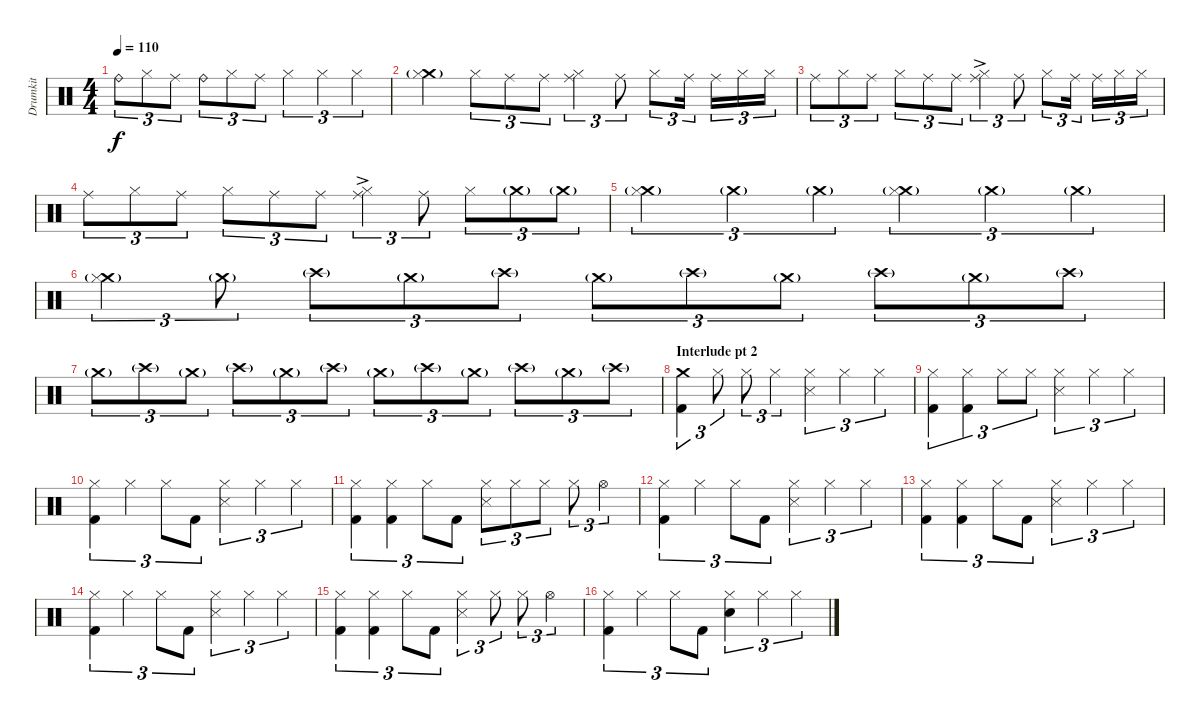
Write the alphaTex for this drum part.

\track ("Drumkit" "Drumkit") {instrument percussion}
\staff {score}
\articulation defaults
\ts (4 4)
\tempo 110
\clef neutral
\ks c "Ride (bell)".8{tu (3 2) dy f} "Hi-Hat (closed)".8{tu (3 2)} "Ride (middle)".8{tu (3 2)} "Ride (bell)".8{tu (3 2)} "Hi-Hat (closed)".8{tu (3 2)} "Ride (middle)".8{tu (3 2)} "Hi-Hat (closed)".4{tu (3 2)} "Hi-Hat (closed)".4{tu (3 2)} "Hi-Hat (closed)".4{tu (3 2)}
|
("Crash medium (hit)"{g} "Hi-Hat (closed)").4 "Hi-Hat (closed)".8{tu (3 2)} "Ride (middle)".8{tu (3 2)} "Ride (middle)".8{tu (3 2)} ("Ride (middle)" "Hi-Hat (closed)").4{tu (3 2)} "Ride (middle)".8{tu (3 2)} "Hi-Hat (closed)".8{tu (3 2)} "Ride (middle)".16{tu (3 2)} "Ride (middle)".16{tu (3 2)} "Hi-Hat (closed)".16{tu (3 2)} "Hi-Hat (closed)".16{tu (3 2)} |
"Ride (middle)".8{tu (3 2)} "Hi-Hat (closed)".8{tu (3 2)} "Ride (middle)".8{tu (3 2)} "Hi-Hat (closed)".8{tu (3 2)} "Ride (middle)".8{tu (3 2)} "Ride (middle)".8{tu (3 2)} ("Ride (middle)"{ac} "Hi-Hat (closed)").4{tu (3 2)} "Ride (middle)".8{tu (3 2)} "Hi-Hat (closed)".8{tu (3 2)} "Ride (middle)".16{tu (3 2)} "Ride (middle)".16{tu (3 2)} "Hi-Hat (closed)".16{tu (3 2)} "Hi-Hat (closed)".16{tu (3 2)} |
"Ride (middle)".8{tu (3 2)} "Hi-Hat (closed)".8{tu (3 2)} "Ride (middle)".8{tu (3 2)} "Hi-Hat (closed)".8{tu (3 2)} "Ride (middle)".8{tu (3 2)} "Ride (middle)".8{tu (3 2)} ("Ride (middle)"{ac} "Hi-Hat (closed)").4{tu (3 2)} "Ride (middle)".8{tu (3 2)} "Hi-Hat (closed)".8{tu (3 2)} "Crash medium (hit)"{g}.8{tu (3 2)} "Crash medium (hit)"{g}.8{tu (3 2)} |
("Crash medium (hit)"{g} "Hi-Hat (closed)").4{tu (3 2)} "Crash medium (hit)"{g}.4{tu (3 2)} "Crash medium (hit)"{g}.4{tu (3 2)} ("Crash medium (hit)"{g} "Hi-Hat (closed)").4{tu (3 2)} "Crash medium (hit)"{g}.4{tu (3 2)} "Crash medium (hit)"{g}.4{tu (3 2)} |
("Crash medium (hit)"{g} "Hi-Hat (closed)").4{tu (3 2)} "Crash medium (hit)"{g}.8{tu (3 2)} "Crash high (hit)"{g}.8{tu (3 2)} "Crash medium (hit)"{g}.8{tu (3 2)} "Crash high (hit)"{g}.8{tu (3 2)} "Crash medium (hit)"{g}.8{tu (3 2)} "Crash high (hit)"{g}.8{tu (3 2)} "Crash medium (hit)"{g}.8{tu (3 2)} "Crash high (hit)"{g}.8{tu (3 2)} "Crash medium (hit)"{g}.8{tu (3 2)} "Crash high (hit)"{g}.8{tu (3 2)} |
"Crash medium (hit)"{g}.8{tu (3 2)} "Crash high (hit)"{g}.8{tu (3 2)} "Crash medium (hit)"{g}.8{tu (3 2)} "Crash high (hit)"{g}.8{tu (3 2)} "Crash medium (hit)"{g}.8{tu (3 2)} "Crash high (hit)"{g}.8{tu (3 2)} "Crash medium (hit)"{g}.8{tu (3 2)} "Crash high (hit)"{g}.8{tu (3 2)} "Crash medium (hit)"{g}.8{tu (3 2)} "Crash high (hit)"{g}.8{tu (3 2)} "Crash medium (hit)"{g}.8{tu (3 2)} "Crash high (hit)"{g}.8{tu (3 2)} |
\section ("" "Interlude pt 2")
("Crash medium (hit)" "Kick (hit) 2").4{tu (3 2)} "Hi-Hat (closed)".8{tu (3 2)} "Hi-Hat (closed)".8{tu (3 2)} "Hi-Hat (closed)".4{tu (3 2)} ("Hi-Hat (closed)" "Snare (side stick) 3").4{tu (3 2)} "Hi-Hat (closed)".4{tu (3 2)} "Hi-Hat (closed)".4{tu (3 2)} |
("Hi-Hat (closed)" "Kick (hit) 2").4{tu (3 2)} ("Hi-Hat (closed)" "Kick (hit) 2").4{tu (3 2)} "Hi-Hat (closed)".8{tu (3 2)} "Hi-Hat (closed)".8{tu (3 2)} ("Hi-Hat (closed)" "Snare (side stick) 3").4{tu (3 2)} "Hi-Hat (closed)".4{tu (3 2)} "Hi-Hat (closed)".4{tu (3 2)} |
("Hi-Hat (closed)" "Kick (hit) 2").4{tu (3 2)} "Hi-Hat (closed)".4{tu (3 2)} "Hi-Hat (closed)".8{tu (3 2)} "Kick (hit) 2".8{tu (3 2)} ("Hi-Hat (closed)" "Snare (side stick) 3").4{tu (3 2)} "Hi-Hat (closed)".4{tu (3 2)} "Hi-Hat (closed)".4{tu (3 2)} |
("Hi-Hat (closed)" "Kick (hit) 2").4{tu (3 2)} ("Hi-Hat (closed)" "Kick (hit) 2").4{tu (3 2)} "Hi-Hat (closed)".8{tu (3 2)} "Kick (hit) 2".8{tu (3 2)} ("Hi-Hat (closed)" "Snare (side stick) 3").8{tu (3 2)} "Hi-Hat (closed)".8{tu (3 2)} "Hi-Hat (closed)".8{tu (3 2)} "Hi-Hat (closed)".8{tu (3 2)} "Hi-Hat (open)".4{tu (3 2)} |
("Hi-Hat (closed)" "Kick (hit) 2").4{tu (3 2)} "Hi-Hat (closed)".4{tu (3 2)} "Hi-Hat (closed)".8{tu (3 2)} "Kick (hit) 2".8{tu (3 2)} ("Hi-Hat (closed)" "Snare (side stick) 3").4{tu (3 2)} "Hi-Hat (closed)".4{tu (3 2)} "Hi-Hat (closed)".4{tu (3 2)} |
("Hi-Hat (closed)" "Kick (hit) 2").4{tu (3 2)} ("Hi-Hat (closed)" "Kick (hit) 2").4{tu (3 2)} "Hi-Hat (closed)".8{tu (3 2)} "Kick (hit) 2".8{tu (3 2)} ("Hi-Hat (closed)" "Snare (side stick) 3").4{tu (3 2)} "Hi-Hat (closed)".4{tu (3 2)} "Hi-Hat (closed)".4{tu (3 2)} |
("Hi-Hat (closed)" "Kick (hit) 2").4{tu (3 2)} "Hi-Hat (closed)".4{tu (3 2)} "Hi-Hat (closed)".8{tu (3 2)} "Kick (hit) 2".8{tu (3 2)} ("Hi-Hat (closed)" "Snare (side stick) 3").4{tu (3 2)} "Hi-Hat (closed)".4{tu (3 2)} "Hi-Hat (closed)".4{tu (3 2)} |
("Hi-Hat (closed)" "Kick (hit) 2").4{tu (3 2)} ("Hi-Hat (closed)" "Kick (hit) 2").4{tu (3 2)} "Hi-Hat (closed)".8{tu (3 2)} "Kick (hit) 2".8{tu (3 2)} ("Hi-Hat (closed)" "Snare (side stick) 3").4{tu (3 2)} "Hi-Hat (closed)".8{tu (3 2)} "Hi-Hat (closed)".8{tu (3 2)} "Hi-Hat (open)".4{tu (3 2)} |
("Hi-Hat (closed)" "Kick (hit) 2").4{tu (3 2)} "Hi-Hat (closed)".4{tu (3 2)} "Hi-Hat (closed)".8{tu (3 2)} "Kick (hit) 2".8{tu (3 2)} ("Hi-Hat (closed)" "Snare (hit) 2").4{tu (3 2)} "Hi-Hat (closed)".4{tu (3 2)} "Hi-Hat (closed)".4{tu (3 2)}
